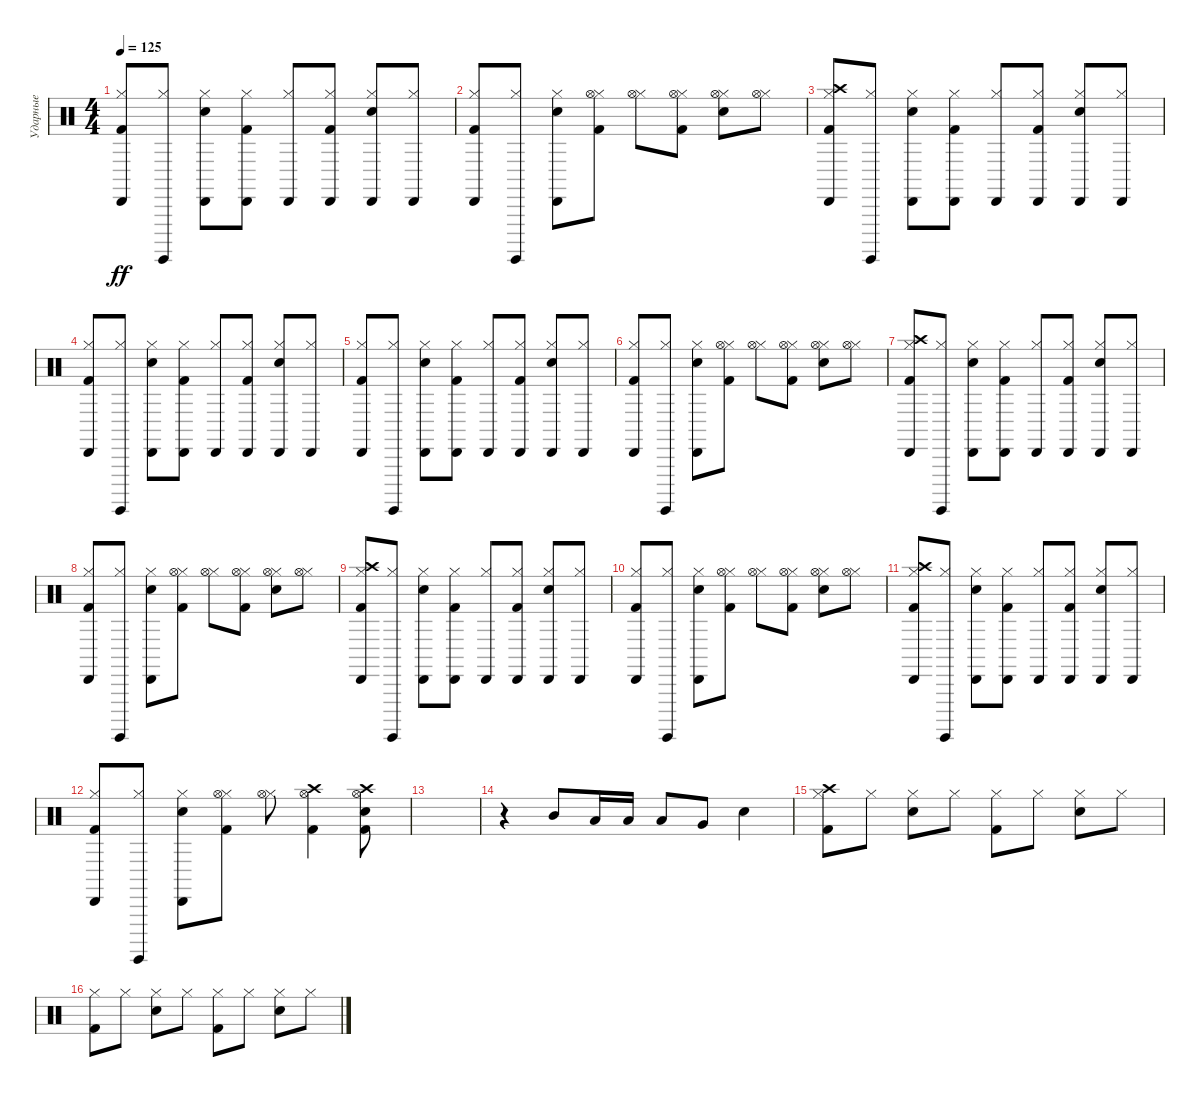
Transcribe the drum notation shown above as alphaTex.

\track ("Ударные" "Ударные") {instrument percussion}
\staff {score}
\articulation defaults
\ts (4 4)
\tempo 125
\clef neutral
\ks c
("Hi-Hat (closed)" "Cabasa (hit)" "Kick (hit) 2").8{dy ff} ("Hi-Hat (closed)" "Surdo (hit)").8 ("Hi-Hat (closed)" "Cabasa (hit)" "Snare (hit) 2").8 ("Hi-Hat (closed)" "Cabasa (hit)" "Kick (hit) 2").8 ("Hi-Hat (closed)" "Cabasa (hit)").8 ("Hi-Hat (closed)" "Cabasa (hit)" "Kick (hit) 2").8 ("Hi-Hat (closed)" "Cabasa (hit)" "Snare (hit) 2").8 ("Hi-Hat (closed)" "Cabasa (hit)").8 |
("Hi-Hat (closed)" "Cabasa (hit)" "Kick (hit) 2").8 ("Hi-Hat (closed)" "Surdo (hit)").8 ("Hi-Hat (closed)" "Cabasa (hit)" "Snare (hit) 2").8 ("Hi-Hat (closed)" "Hi-Hat (open)" "Kick (hit) 2").8 ("Hi-Hat (closed)" "Hi-Hat (open)").8 ("Hi-Hat (closed)" "Hi-Hat (open)" "Kick (hit) 2").8 ("Hi-Hat (closed)" "Hi-Hat (open)" "Snare (hit) 2").8 ("Hi-Hat (closed)" "Hi-Hat (open)").8 |
("Crash high (hit)" "Hi-Hat (closed)" "Cabasa (hit)" "Kick (hit) 2").8 ("Hi-Hat (closed)" "Surdo (hit)").8 ("Hi-Hat (closed)" "Cabasa (hit)" "Snare (hit) 2").8 ("Hi-Hat (closed)" "Cabasa (hit)" "Kick (hit) 2").8 ("Hi-Hat (closed)" "Cabasa (hit)").8 ("Hi-Hat (closed)" "Cabasa (hit)" "Kick (hit) 2").8 ("Hi-Hat (closed)" "Cabasa (hit)" "Snare (hit) 2").8 ("Hi-Hat (closed)" "Cabasa (hit)").8 |
("Hi-Hat (closed)" "Cabasa (hit)" "Kick (hit) 2").8 ("Hi-Hat (closed)" "Surdo (hit)").8 ("Hi-Hat (closed)" "Cabasa (hit)" "Snare (hit) 2").8 ("Hi-Hat (closed)" "Cabasa (hit)" "Kick (hit) 2").8 ("Hi-Hat (closed)" "Cabasa (hit)").8 ("Hi-Hat (closed)" "Cabasa (hit)" "Kick (hit) 2").8 ("Hi-Hat (closed)" "Cabasa (hit)" "Snare (hit) 2").8 ("Hi-Hat (closed)" "Cabasa (hit)").8 |
("Hi-Hat (closed)" "Cabasa (hit)" "Kick (hit) 2").8 ("Hi-Hat (closed)" "Surdo (hit)").8 ("Hi-Hat (closed)" "Cabasa (hit)" "Snare (hit) 2").8 ("Hi-Hat (closed)" "Cabasa (hit)" "Kick (hit) 2").8 ("Hi-Hat (closed)" "Cabasa (hit)").8 ("Hi-Hat (closed)" "Cabasa (hit)" "Kick (hit) 2").8 ("Hi-Hat (closed)" "Cabasa (hit)" "Snare (hit) 2").8 ("Hi-Hat (closed)" "Cabasa (hit)").8 |
("Hi-Hat (closed)" "Cabasa (hit)" "Kick (hit) 2").8 ("Hi-Hat (closed)" "Surdo (hit)").8 ("Hi-Hat (closed)" "Cabasa (hit)" "Snare (hit) 2").8 ("Hi-Hat (closed)" "Hi-Hat (open)" "Kick (hit) 2").8 ("Hi-Hat (closed)" "Hi-Hat (open)").8 ("Hi-Hat (closed)" "Hi-Hat (open)" "Kick (hit) 2").8 ("Hi-Hat (closed)" "Hi-Hat (open)" "Snare (hit) 2").8 ("Hi-Hat (closed)" "Hi-Hat (open)").8 |
("Crash high (hit)" "Hi-Hat (closed)" "Cabasa (hit)" "Kick (hit) 2").8 ("Hi-Hat (closed)" "Surdo (hit)").8 ("Hi-Hat (closed)" "Cabasa (hit)" "Snare (hit) 2").8 ("Hi-Hat (closed)" "Cabasa (hit)" "Kick (hit) 2").8 ("Hi-Hat (closed)" "Cabasa (hit)").8 ("Hi-Hat (closed)" "Cabasa (hit)" "Kick (hit) 2").8 ("Hi-Hat (closed)" "Cabasa (hit)" "Snare (hit) 2").8 ("Hi-Hat (closed)" "Cabasa (hit)").8 |
("Hi-Hat (closed)" "Cabasa (hit)" "Kick (hit) 2").8 ("Hi-Hat (closed)" "Surdo (hit)").8 ("Hi-Hat (closed)" "Cabasa (hit)" "Snare (hit) 2").8 ("Hi-Hat (closed)" "Hi-Hat (open)" "Kick (hit) 2").8 ("Hi-Hat (closed)" "Hi-Hat (open)").8 ("Hi-Hat (closed)" "Hi-Hat (open)" "Kick (hit) 2").8 ("Hi-Hat (closed)" "Hi-Hat (open)" "Snare (hit) 2").8 ("Hi-Hat (closed)" "Hi-Hat (open)").8 |
("Crash high (hit)" "Hi-Hat (closed)" "Cabasa (hit)" "Kick (hit) 2").8 ("Hi-Hat (closed)" "Surdo (hit)").8 ("Hi-Hat (closed)" "Cabasa (hit)" "Snare (hit) 2").8 ("Hi-Hat (closed)" "Cabasa (hit)" "Kick (hit) 2").8 ("Hi-Hat (closed)" "Cabasa (hit)").8 ("Hi-Hat (closed)" "Cabasa (hit)" "Kick (hit) 2").8 ("Hi-Hat (closed)" "Cabasa (hit)" "Snare (hit) 2").8 ("Hi-Hat (closed)" "Cabasa (hit)").8 |
("Hi-Hat (closed)" "Cabasa (hit)" "Kick (hit) 2").8 ("Hi-Hat (closed)" "Surdo (hit)").8 ("Hi-Hat (closed)" "Cabasa (hit)" "Snare (hit) 2").8 ("Hi-Hat (closed)" "Hi-Hat (open)" "Kick (hit) 2").8 ("Hi-Hat (closed)" "Hi-Hat (open)").8 ("Hi-Hat (closed)" "Hi-Hat (open)" "Kick (hit) 2").8 ("Hi-Hat (closed)" "Hi-Hat (open)" "Snare (hit) 2").8 ("Hi-Hat (closed)" "Hi-Hat (open)").8 |
("Crash high (hit)" "Hi-Hat (closed)" "Cabasa (hit)" "Kick (hit) 2").8 ("Hi-Hat (closed)" "Surdo (hit)").8 ("Hi-Hat (closed)" "Cabasa (hit)" "Snare (hit) 2").8 ("Hi-Hat (closed)" "Cabasa (hit)" "Kick (hit) 2").8 ("Hi-Hat (closed)" "Cabasa (hit)").8 ("Hi-Hat (closed)" "Cabasa (hit)" "Kick (hit) 2").8 ("Hi-Hat (closed)" "Cabasa (hit)" "Snare (hit) 2").8 ("Hi-Hat (closed)" "Cabasa (hit)").8 |
("Hi-Hat (closed)" "Cabasa (hit)" "Kick (hit) 2").8 ("Hi-Hat (closed)" "Surdo (hit)").8 ("Hi-Hat (closed)" "Cabasa (hit)" "Snare (hit) 2").8 ("Hi-Hat (closed)" "Hi-Hat (open)" "Kick (hit) 2").8 ("Hi-Hat (closed)" "Hi-Hat (open)").8 ("Crash high (hit)" "Hi-Hat (open)" "Kick (hit) 2").4 ("Crash high (hit)" "Hi-Hat (open)" "Snare (hit) 2" "Kick (hit) 2").8 |
|
r.4 "Mid Tom (hit)".8 "Low Tom (hit)".16 "Low Tom (hit)".16 "Low Tom (hit)".8 "Very Low Tom (hit)".8 "Snare (hit) 2".4 |
("Crash high (hit)" "Hi-Hat (closed)" "Kick (hit) 2").8 "Hi-Hat (closed)".8 ("Hi-Hat (closed)" "Snare (hit) 2").8 "Hi-Hat (closed)".8 ("Hi-Hat (closed)" "Kick (hit) 2").8 "Hi-Hat (closed)".8 ("Hi-Hat (closed)" "Snare (hit) 2").8 "Hi-Hat (closed)".8 |
("Hi-Hat (closed)" "Kick (hit) 2").8 "Hi-Hat (closed)".8 ("Hi-Hat (closed)" "Snare (hit) 2").8 "Hi-Hat (closed)".8 ("Hi-Hat (closed)" "Kick (hit) 2").8 "Hi-Hat (closed)".8 ("Hi-Hat (closed)" "Snare (hit) 2").8 "Hi-Hat (closed)".8
